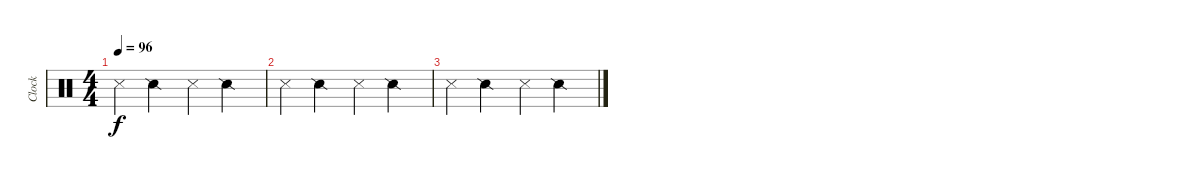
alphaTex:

\track ("Clock" "Clock") {instrument percussion}
\staff {score}
\articulation defaults
\ts (4 4)
\tempo 96
\clef neutral
\ks c "Snare (side stick) 3".4{dy f} "Snare (side stick) 2".4 "Snare (side stick) 3".4 "Snare (side stick) 2".4
|
"Snare (side stick) 3".4 "Snare (side stick) 2".4 "Snare (side stick) 3".4 "Snare (side stick) 2".4 |
"Snare (side stick) 3".4 "Snare (side stick) 2".4 "Snare (side stick) 3".4 "Snare (side stick) 2".4
